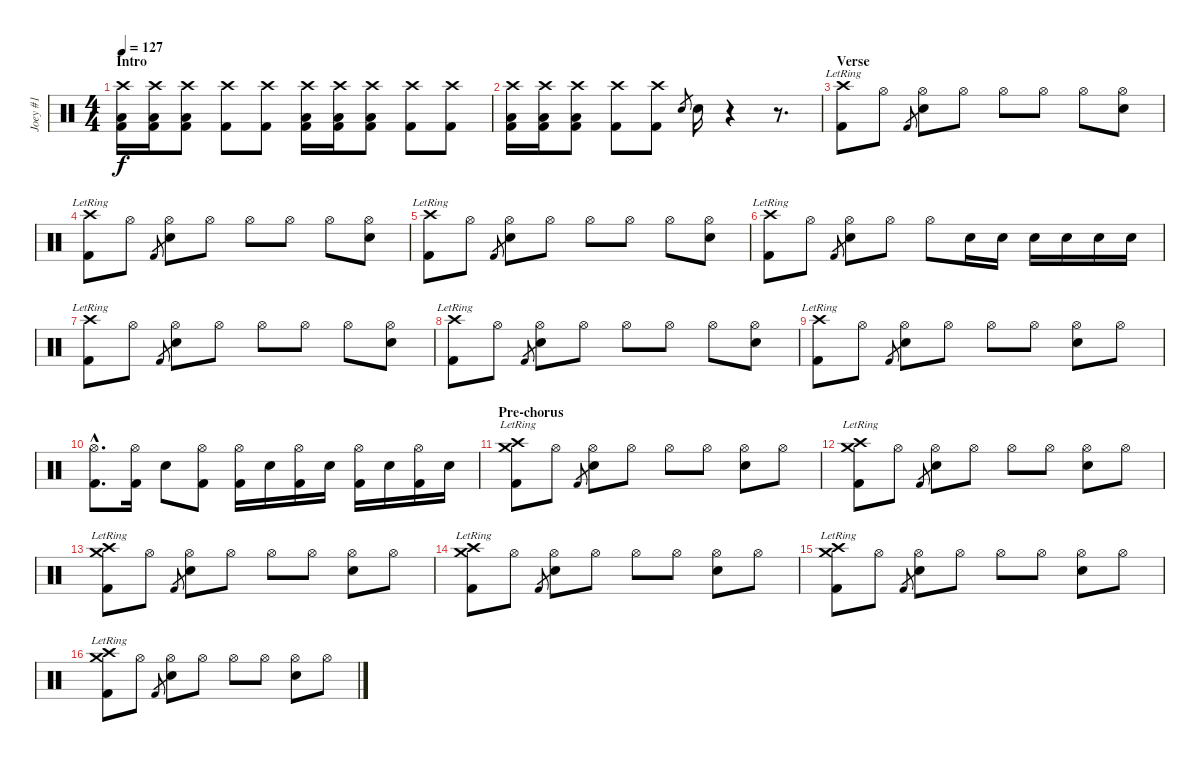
\track ("Joey #1" "Joey #1") {instrument percussion}
\staff {score}
\articulation defaults
\ts (4 4)
\section ("" "Intro")
\tempo 127
\clef neutral
\ks c
("Crash high (hit)" "Kick (hit) 2" "Low Floor Tom (hit)").16{dy f} ("Crash high (hit)" "Kick (hit) 2" "Low Floor Tom (hit)").16 ("Crash high (hit)" "Kick (hit) 2" "Low Floor Tom (hit)").8 ("Crash high (hit)" "Kick (hit) 2").8 ("Crash high (hit)" "Kick (hit) 2").8 ("Crash high (hit)" "Kick (hit) 2" "Low Floor Tom (hit)").16 ("Crash high (hit)" "Kick (hit) 2" "Low Floor Tom (hit)").16 ("Crash high (hit)" "Kick (hit) 2" "Low Floor Tom (hit)").8 ("Crash high (hit)" "Kick (hit) 2").8 ("Crash high (hit)" "Kick (hit) 2").8 |
("Crash high (hit)" "Kick (hit) 2" "Low Floor Tom (hit)").16 ("Crash high (hit)" "Kick (hit) 2" "Low Floor Tom (hit)").16 ("Crash high (hit)" "Kick (hit) 2" "Low Floor Tom (hit)").8 ("Crash high (hit)" "Kick (hit) 2").8 ("Crash high (hit)" "Kick (hit) 2").8 "Electric Snare (hit)"{sl}.8{gr} "Electric Snare (hit)".16 r.4 r.8{d} |
\section ("" "Verse")
("Crash high (hit)"{lr} "Kick (hit) 2").8 "Hi-Hat (open)".8 "Kick (hit) 2"{sl}.8{gr} ("Hi-Hat (open)" "Electric Snare (hit)").8 "Hi-Hat (open)".8 "Hi-Hat (open)".8 "Hi-Hat (open)".8 "Hi-Hat (open)".8 ("Hi-Hat (open)" "Electric Snare (hit)").8 |
("Crash high (hit)"{lr} "Kick (hit) 2").8 "Hi-Hat (open)".8 "Kick (hit) 2"{sl}.8{gr} ("Hi-Hat (open)" "Electric Snare (hit)").8 "Hi-Hat (open)".8 "Hi-Hat (open)".8 "Hi-Hat (open)".8 "Hi-Hat (open)".8 ("Hi-Hat (open)" "Electric Snare (hit)").8 |
("Crash high (hit)"{lr} "Kick (hit) 2").8 "Hi-Hat (open)".8 "Kick (hit) 2"{sl}.8{gr} ("Hi-Hat (open)" "Electric Snare (hit)").8 "Hi-Hat (open)".8 "Hi-Hat (open)".8 "Hi-Hat (open)".8 "Hi-Hat (open)".8 ("Hi-Hat (open)" "Electric Snare (hit)").8 |
("Crash high (hit)"{lr} "Kick (hit) 2").8 "Hi-Hat (open)".8 "Kick (hit) 2"{sl}.8{gr} ("Hi-Hat (open)" "Electric Snare (hit)").8 "Hi-Hat (open)".8 "Hi-Hat (open)".8 "Electric Snare (hit)".16 "Electric Snare (hit)".16 "Electric Snare (hit)".16 "Electric Snare (hit)".16 "Electric Snare (hit)".16 "Electric Snare (hit)".16 |
("Crash high (hit)"{lr} "Kick (hit) 2").8 "Hi-Hat (open)".8 "Kick (hit) 2"{sl}.8{gr} ("Hi-Hat (open)" "Electric Snare (hit)").8 "Hi-Hat (open)".8 "Hi-Hat (open)".8 "Hi-Hat (open)".8 "Hi-Hat (open)".8 ("Hi-Hat (open)" "Electric Snare (hit)").8 |
("Crash high (hit)"{lr} "Kick (hit) 2").8 "Hi-Hat (open)".8 "Kick (hit) 2"{sl}.8{gr} ("Hi-Hat (open)" "Electric Snare (hit)").8 "Hi-Hat (open)".8 "Hi-Hat (open)".8 "Hi-Hat (open)".8 "Hi-Hat (open)".8 ("Hi-Hat (open)" "Electric Snare (hit)").8 |
("Crash high (hit)"{lr} "Kick (hit) 2").8 "Hi-Hat (open)".8 "Kick (hit) 2"{sl}.8{gr} ("Hi-Hat (open)" "Electric Snare (hit)").8 "Hi-Hat (open)".8 "Hi-Hat (open)".8 "Hi-Hat (open)".8 ("Hi-Hat (open)" "Electric Snare (hit)").8 "Hi-Hat (open)".8 |
("Hi-Hat (open)"{hac} "Kick (hit) 2"{hac}).8{d} ("Hi-Hat (open)" "Kick (hit) 2").16 "Electric Snare (hit)".8 ("Hi-Hat (open)" "Kick (hit) 2").8 ("Kick (hit) 2" "Hi-Hat (open)").16 "Electric Snare (hit)".16 ("Kick (hit) 2" "Hi-Hat (open)").16 "Electric Snare (hit)".16 ("Kick (hit) 2" "Hi-Hat (open)").16 "Electric Snare (hit)".16 ("Kick (hit) 2" "Hi-Hat (open)").16 "Electric Snare (hit)".16 |
\section ("" "Pre-chorus")
("Crash medium (hit)"{lr} "Crash high (hit)"{lr} "Kick (hit) 2").8 "Hi-Hat (open)".8 "Kick (hit) 2"{sl}.8{gr} ("Hi-Hat (open)" "Electric Snare (hit)").8 "Hi-Hat (open)".8 "Hi-Hat (open)".8 "Hi-Hat (open)".8 ("Hi-Hat (open)" "Electric Snare (hit)").8 "Hi-Hat (open)".8 |
("Crash medium (hit)"{lr} "Crash high (hit)"{lr} "Kick (hit) 2").8 "Hi-Hat (open)".8 "Kick (hit) 2"{sl}.8{gr} ("Hi-Hat (open)" "Electric Snare (hit)").8 "Hi-Hat (open)".8 "Hi-Hat (open)".8 "Hi-Hat (open)".8 ("Hi-Hat (open)" "Electric Snare (hit)").8 "Hi-Hat (open)".8 |
("Crash medium (hit)"{lr} "Crash high (hit)"{lr} "Kick (hit) 2").8 "Hi-Hat (open)".8 "Kick (hit) 2"{sl}.8{gr} ("Hi-Hat (open)" "Electric Snare (hit)").8 "Hi-Hat (open)".8 "Hi-Hat (open)".8 "Hi-Hat (open)".8 ("Hi-Hat (open)" "Electric Snare (hit)").8 "Hi-Hat (open)".8 |
("Crash medium (hit)"{lr} "Crash high (hit)"{lr} "Kick (hit) 2").8 "Hi-Hat (open)".8 "Kick (hit) 2"{sl}.8{gr} ("Hi-Hat (open)" "Electric Snare (hit)").8 "Hi-Hat (open)".8 "Hi-Hat (open)".8 "Hi-Hat (open)".8 ("Hi-Hat (open)" "Electric Snare (hit)").8 "Hi-Hat (open)".8 |
("Crash medium (hit)"{lr} "Crash high (hit)"{lr} "Kick (hit) 2").8 "Hi-Hat (open)".8 "Kick (hit) 2"{sl}.8{gr} ("Hi-Hat (open)" "Electric Snare (hit)").8 "Hi-Hat (open)".8 "Hi-Hat (open)".8 "Hi-Hat (open)".8 ("Hi-Hat (open)" "Electric Snare (hit)").8 "Hi-Hat (open)".8 |
("Crash medium (hit)"{lr} "Crash high (hit)"{lr} "Kick (hit) 2").8 "Hi-Hat (open)".8 "Kick (hit) 2"{sl}.8{gr} ("Hi-Hat (open)" "Electric Snare (hit)").8 "Hi-Hat (open)".8 "Hi-Hat (open)".8 "Hi-Hat (open)".8 ("Hi-Hat (open)" "Electric Snare (hit)").8 "Hi-Hat (open)".8
